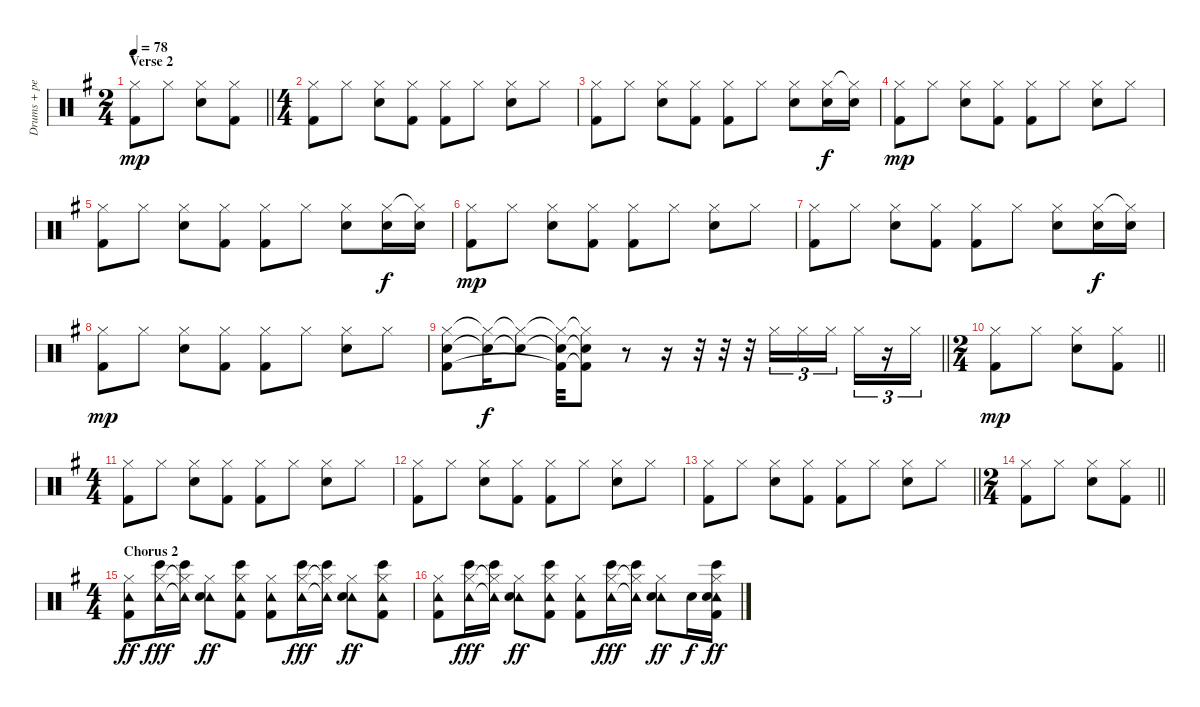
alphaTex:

\track ("Drums + percussion" "Drums + pe") {instrument percussion}
\staff {score}
\articulation defaults
\ts (2 4)
\section ("" "Verse 2")
\tempo 78
\clef neutral
\barLineRight lightlight
\ks g
("Hi-Hat (closed)" "Kick (hit) 2").8{dy mp} "Hi-Hat (closed)".8 ("Hi-Hat (closed)" "Snare (hit) 2").8 ("Hi-Hat (closed)" "Kick (hit) 2").8 |
\ts (4 4)
("Hi-Hat (closed)" "Kick (hit) 2").8 "Hi-Hat (closed)".8 ("Hi-Hat (closed)" "Snare (hit) 2").8 ("Hi-Hat (closed)" "Kick (hit) 2").8 ("Hi-Hat (closed)" "Kick (hit) 2").8 "Hi-Hat (closed)".8 ("Hi-Hat (closed)" "Snare (hit) 2").8 "Hi-Hat (closed)".8 |
("Hi-Hat (closed)" "Kick (hit) 2").8 "Hi-Hat (closed)".8 ("Hi-Hat (closed)" "Snare (hit) 2").8 ("Hi-Hat (closed)" "Kick (hit) 2").8 ("Hi-Hat (closed)" "Kick (hit) 2").8 "Hi-Hat (closed)".8 ("Hi-Hat (closed)" "Snare (hit) 2").8 ("Hi-Hat (closed)" "Snare (hit) 2").16{dy f} ("Hi-Hat (closed)"{t} "Snare (hit) 2").16 |
("Hi-Hat (closed)" "Kick (hit) 2").8{dy mp} "Hi-Hat (closed)".8 ("Hi-Hat (closed)" "Snare (hit) 2").8 ("Hi-Hat (closed)" "Kick (hit) 2").8 ("Hi-Hat (closed)" "Kick (hit) 2").8 "Hi-Hat (closed)".8 ("Hi-Hat (closed)" "Snare (hit) 2").8 "Hi-Hat (closed)".8 |
("Hi-Hat (closed)" "Kick (hit) 2").8 "Hi-Hat (closed)".8 ("Hi-Hat (closed)" "Snare (hit) 2").8 ("Hi-Hat (closed)" "Kick (hit) 2").8 ("Hi-Hat (closed)" "Kick (hit) 2").8 "Hi-Hat (closed)".8 ("Hi-Hat (closed)" "Snare (hit) 2").8 ("Hi-Hat (closed)" "Snare (hit) 2").16{dy f} ("Hi-Hat (closed)"{t} "Snare (hit) 2").16 |
("Hi-Hat (closed)" "Kick (hit) 2").8{dy mp} "Hi-Hat (closed)".8 ("Hi-Hat (closed)" "Snare (hit) 2").8 ("Hi-Hat (closed)" "Kick (hit) 2").8 ("Hi-Hat (closed)" "Kick (hit) 2").8 "Hi-Hat (closed)".8 ("Hi-Hat (closed)" "Snare (hit) 2").8 "Hi-Hat (closed)".8 |
("Hi-Hat (closed)" "Kick (hit) 2").8 "Hi-Hat (closed)".8 ("Hi-Hat (closed)" "Snare (hit) 2").8 ("Hi-Hat (closed)" "Kick (hit) 2").8 ("Hi-Hat (closed)" "Kick (hit) 2").8 "Hi-Hat (closed)".8 ("Hi-Hat (closed)" "Snare (hit) 2").8 ("Hi-Hat (closed)" "Snare (hit) 2").16{dy f} ("Hi-Hat (closed)"{t} "Snare (hit) 2").16 |
("Hi-Hat (closed)" "Kick (hit) 2").8{dy mp} "Hi-Hat (closed)".8 ("Hi-Hat (closed)" "Snare (hit) 2").8 ("Hi-Hat (closed)" "Kick (hit) 2").8 ("Hi-Hat (closed)" "Kick (hit) 2").8 "Hi-Hat (closed)".8 ("Hi-Hat (closed)" "Snare (hit) 2").8 "Hi-Hat (closed)".8 |
\barLineRight lightlight
("Hi-Hat (closed)" "Snare (hit) 2" "Kick (hit) 2").8 ("Hi-Hat (closed)"{t} "Snare (hit) 2"{t}).16{dy f} ("Hi-Hat (closed)"{t} "Snare (hit) 2"{t}).8 ("Hi-Hat (closed)"{t} "Snare (hit) 2"{t} "Kick (hit) 2"{t}).32 ("Hi-Hat (closed)"{t} "Snare (hit) 2"{t} "Kick (hit) 2"{t}).8 r.8 r.16 r.32 r.32 r.32 "Hi-Hat (closed)".16{tu (3 2)} "Hi-Hat (closed)".16{tu (3 2)} "Hi-Hat (closed)".16{tu (3 2)} "Hi-Hat (closed)".16{tu (3 2)} r.16{tu (3 2)} "Hi-Hat (closed)".16{tu (3 2)} |
\ts (2 4)
\barLineRight lightlight
("Hi-Hat (closed)" "Kick (hit) 2").8{dy mp} "Hi-Hat (closed)".8 ("Hi-Hat (closed)" "Snare (hit) 2").8 ("Hi-Hat (closed)" "Kick (hit) 2").8 |
\ts (4 4)
("Hi-Hat (closed)" "Kick (hit) 2").8 "Hi-Hat (closed)".8 ("Hi-Hat (closed)" "Snare (hit) 2").8 ("Hi-Hat (closed)" "Kick (hit) 2").8 ("Hi-Hat (closed)" "Kick (hit) 2").8 "Hi-Hat (closed)".8 ("Hi-Hat (closed)" "Snare (hit) 2").8 "Hi-Hat (closed)".8 |
("Hi-Hat (closed)" "Kick (hit) 2").8 "Hi-Hat (closed)".8 ("Hi-Hat (closed)" "Snare (hit) 2").8 ("Hi-Hat (closed)" "Kick (hit) 2").8 ("Hi-Hat (closed)" "Kick (hit) 2").8 "Hi-Hat (closed)".8 ("Hi-Hat (closed)" "Snare (hit) 2").8 "Hi-Hat (closed)".8 |
\barLineRight lightlight
("Hi-Hat (closed)" "Kick (hit) 2").8 "Hi-Hat (closed)".8 ("Hi-Hat (closed)" "Snare (hit) 2").8 ("Hi-Hat (closed)" "Kick (hit) 2").8 ("Hi-Hat (closed)" "Kick (hit) 2").8 "Hi-Hat (closed)".8 ("Hi-Hat (closed)" "Snare (hit) 2").8 "Hi-Hat (closed)".8 |
\ts (2 4)
\barLineRight lightlight
("Hi-Hat (closed)" "Kick (hit) 2").8 "Hi-Hat (closed)".8 ("Hi-Hat (closed)" "Snare (hit) 2").8 ("Hi-Hat (closed)" "Kick (hit) 2").8 |
\ts (4 4)
\section ("" "Chorus 2")
("Tambourine (hit)" "Hi-Hat (closed)" "Kick (hit) 2").8{dy ff} ("Tambourine (hit)" "Hi-Hat (closed)" "Bongo High (hit)").16{dy fff} ("Tambourine (hit)"{t} "Hi-Hat (closed)"{t} "Bongo High (hit)").16 ("Tambourine (hit)" "Hi-Hat (closed)" "Snare (hit) 2").8{dy ff} ("Tambourine (hit)" "Hi-Hat (closed)" "Bongo High (hit)" "Kick (hit) 2").8 ("Tambourine (hit)" "Hi-Hat (closed)" "Kick (hit) 2").8 ("Tambourine (hit)" "Hi-Hat (closed)" "Bongo High (hit)").16{dy fff} ("Tambourine (hit)"{t} "Hi-Hat (closed)"{t} "Bongo High (hit)").16 ("Tambourine (hit)" "Hi-Hat (closed)" "Snare (hit) 2").8{dy ff} ("Tambourine (hit)" "Hi-Hat (closed)" "Bongo High (hit)" "Kick (hit) 2").8 |
("Tambourine (hit)" "Hi-Hat (closed)" "Kick (hit) 2").8 ("Tambourine (hit)" "Hi-Hat (closed)" "Bongo High (hit)").16{dy fff} ("Tambourine (hit)"{t} "Hi-Hat (closed)"{t} "Bongo High (hit)").16 ("Tambourine (hit)" "Hi-Hat (closed)" "Snare (hit) 2").8{dy ff} ("Tambourine (hit)" "Hi-Hat (closed)" "Bongo High (hit)" "Kick (hit) 2").8 ("Tambourine (hit)" "Hi-Hat (closed)" "Kick (hit) 2").8 ("Tambourine (hit)" "Hi-Hat (closed)" "Bongo High (hit)").16{dy fff} ("Tambourine (hit)"{t} "Hi-Hat (closed)"{t} "Bongo High (hit)").16 ("Tambourine (hit)" "Hi-Hat (closed)" "Snare (hit) 2").8{dy ff} "Snare (hit) 2".16{dy f} ("Tambourine (hit)" "Hi-Hat (closed)" "Bongo High (hit)" "Snare (hit) 2" "Kick (hit) 2").16{dy ff}
